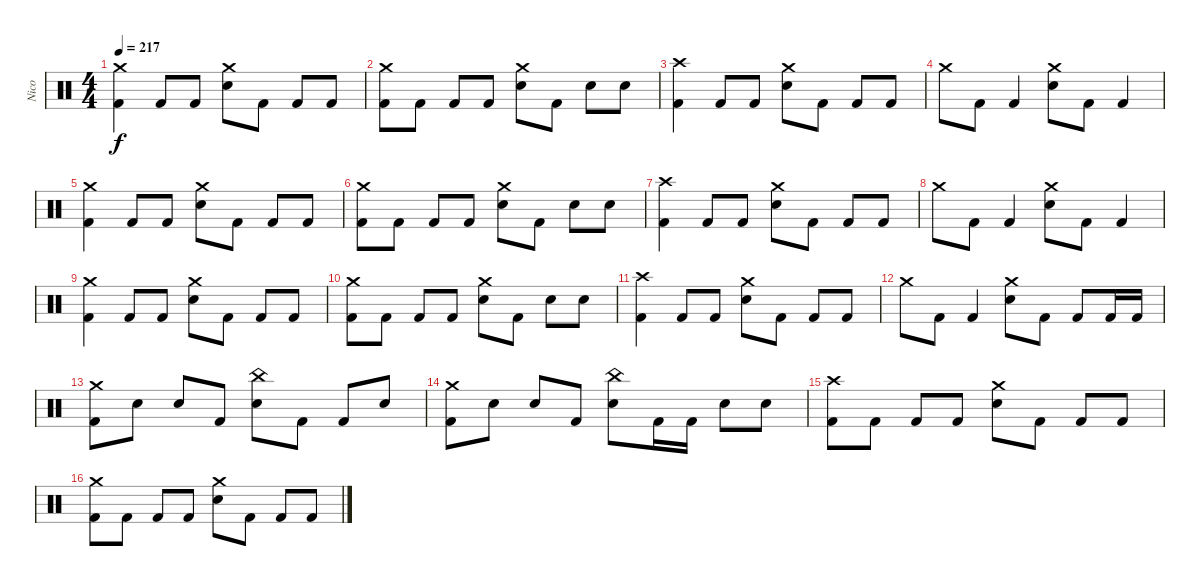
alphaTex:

\track ("Nico" "Nico") {instrument percussion}
\staff {score}
\articulation defaults
\ts (4 4)
\tempo 217
\clef neutral
\ks c
("Crash medium (hit)" "Kick (hit) 2").4{dy f} "Kick (hit) 2".8 "Kick (hit) 2".8 ("Crash medium (hit)" "Electric Snare (hit)").8 "Kick (hit) 2".8 "Kick (hit) 2".8 "Kick (hit) 2".8 |
("Crash medium (hit)" "Kick (hit) 2").8 "Kick (hit) 2".8 "Kick (hit) 2".8 "Kick (hit) 2".8 ("Crash medium (hit)" "Electric Snare (hit)").8 "Kick (hit) 2".8 "Electric Snare (hit)".8 "Electric Snare (hit)".8 |
("Crash high (hit)" "Kick (hit) 2").4 "Kick (hit) 2".8 "Kick (hit) 2".8 ("Crash medium (hit)" "Electric Snare (hit)").8 "Kick (hit) 2".8 "Kick (hit) 2".8 "Kick (hit) 2".8 |
"Crash medium (hit)".8 "Kick (hit) 2".8 "Kick (hit) 2".4 ("Crash medium (hit)" "Electric Snare (hit)").8 "Kick (hit) 2".8 "Kick (hit) 2".4 |
("Crash medium (hit)" "Kick (hit) 2").4 "Kick (hit) 2".8 "Kick (hit) 2".8 ("Crash medium (hit)" "Electric Snare (hit)").8 "Kick (hit) 2".8 "Kick (hit) 2".8 "Kick (hit) 2".8 |
("Crash medium (hit)" "Kick (hit) 2").8 "Kick (hit) 2".8 "Kick (hit) 2".8 "Kick (hit) 2".8 ("Crash medium (hit)" "Electric Snare (hit)").8 "Kick (hit) 2".8 "Electric Snare (hit)".8 "Electric Snare (hit)".8 |
("Crash high (hit)" "Kick (hit) 2").4 "Kick (hit) 2".8 "Kick (hit) 2".8 ("Crash medium (hit)" "Electric Snare (hit)").8 "Kick (hit) 2".8 "Kick (hit) 2".8 "Kick (hit) 2".8 |
"Crash medium (hit)".8 "Kick (hit) 2".8 "Kick (hit) 2".4 ("Crash medium (hit)" "Electric Snare (hit)").8 "Kick (hit) 2".8 "Kick (hit) 2".4 |
("Crash medium (hit)" "Kick (hit) 2").4 "Kick (hit) 2".8 "Kick (hit) 2".8 ("Crash medium (hit)" "Electric Snare (hit)").8 "Kick (hit) 2".8 "Kick (hit) 2".8 "Kick (hit) 2".8 |
("Crash medium (hit)" "Kick (hit) 2").8 "Kick (hit) 2".8 "Kick (hit) 2".8 "Kick (hit) 2".8 ("Crash medium (hit)" "Electric Snare (hit)").8 "Kick (hit) 2".8 "Electric Snare (hit)".8 "Electric Snare (hit)".8 |
("Crash high (hit)" "Kick (hit) 2").4 "Kick (hit) 2".8 "Kick (hit) 2".8 ("Crash medium (hit)" "Electric Snare (hit)").8 "Kick (hit) 2".8 "Kick (hit) 2".8 "Kick (hit) 2".8 |
"Crash medium (hit)".8 "Kick (hit) 2".8 "Kick (hit) 2".4 ("Crash medium (hit)" "Electric Snare (hit)").8 "Kick (hit) 2".8 "Kick (hit) 2".8 "Kick (hit) 2".16 "Kick (hit) 2".16 |
("Crash medium (hit)" "Kick (hit) 2").8 "Electric Snare (hit)".8 "Electric Snare (hit)".8 "Kick (hit) 2".8 ("China (hit)" "Electric Snare (hit)").8 "Kick (hit) 2".8 "Kick (hit) 2".8 "Electric Snare (hit)".8 |
("Crash medium (hit)" "Kick (hit) 2").8 "Electric Snare (hit)".8 "Electric Snare (hit)".8 "Kick (hit) 2".8 ("China (hit)" "Electric Snare (hit)").8 "Kick (hit) 2".16 "Kick (hit) 2".16 "Electric Snare (hit)".8 "Electric Snare (hit)".8 |
("Crash high (hit)" "Kick (hit) 2").8 "Kick (hit) 2".8 "Kick (hit) 2".8 "Kick (hit) 2".8 ("Crash medium (hit)" "Electric Snare (hit)").8 "Kick (hit) 2".8 "Kick (hit) 2".8 "Kick (hit) 2".8 |
("Crash medium (hit)" "Kick (hit) 2").8 "Kick (hit) 2".8 "Kick (hit) 2".8 "Kick (hit) 2".8 ("Crash medium (hit)" "Electric Snare (hit)").8 "Kick (hit) 2".8 "Kick (hit) 2".8 "Kick (hit) 2".8
